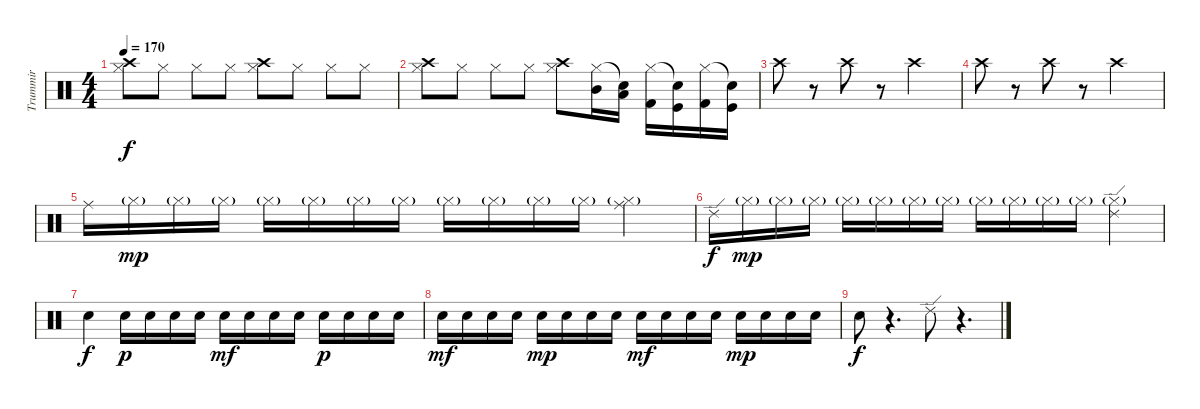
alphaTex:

\track ("Trummir" "Trummir") {instrument percussion}
\staff {score}
\articulation defaults
\ts (4 4)
\tempo 170
\clef neutral
\ks c
("Hi-Hat (closed)" "Crash high (hit)").8{dy f} "Hi-Hat (closed)".8 "Hi-Hat (closed)".8 "Hi-Hat (closed)".8 ("Hi-Hat (closed)" "Crash high (hit)").8 "Hi-Hat (closed)".8 "Hi-Hat (closed)".8 "Hi-Hat (closed)".8 |
("Hi-Hat (closed)" "Crash high (hit)").8 "Hi-Hat (closed)".8 "Hi-Hat (closed)".8 "Hi-Hat (closed)".8 ("Hi-Hat (closed)" "Crash high (hit)").8 ("Hi-Hat (closed)" "Mid Tom (hit)").16 ("Snare (hit)"{t} "Low Tom (hit)").16 ("Hi-Hat (closed)" "Kick (hit) 2").16 ("Snare (hit)"{t} "Kick (hit)").16 ("Hi-Hat (closed)" "Kick (hit) 2").16 ("Snare (hit)"{t} "Kick (hit)").16 |
"Crash high (hit)".8 r.8 "Crash high (hit)".8 r.8 "Crash high (hit)".2 |
"Crash high (hit)".8 r.8 "Crash high (hit)".8 r.8 "Crash high (hit)".2 |
"Ride (middle)".16 "Hi-Hat (closed)"{g}.16{dy mp} "Hi-Hat (closed)"{g}.16 "Hi-Hat (closed)"{g}.16 "Hi-Hat (closed)"{g}.16 "Hi-Hat (closed)"{g}.16 "Hi-Hat (closed)"{g}.16 "Hi-Hat (closed)"{g}.16 "Hi-Hat (closed)"{g}.16 "Hi-Hat (closed)"{g}.16 "Hi-Hat (closed)"{g}.16 "Hi-Hat (closed)"{g}.16 ("Hi-Hat (closed)"{g} "Ride (middle)").4 |
"Ride (edge) 2".16{dy f} "Hi-Hat (closed)"{g}.16{dy mp} "Hi-Hat (closed)"{g}.16 "Hi-Hat (closed)"{g}.16 "Hi-Hat (closed)"{g}.16 "Hi-Hat (closed)"{g}.16 "Hi-Hat (closed)"{g}.16 "Hi-Hat (closed)"{g}.16 "Hi-Hat (closed)"{g}.16 "Hi-Hat (closed)"{g}.16 "Hi-Hat (closed)"{g}.16 "Hi-Hat (closed)"{g}.16 ("Hi-Hat (closed)"{g} "Ride (edge) 2").4 |
"Snare (hit) 2".4{dy f} "Snare (hit) 2".16{dy p} "Snare (hit) 2".16 "Snare (hit) 2".16 "Snare (hit) 2".16 "Snare (hit) 2".16{dy mf} "Snare (hit) 2".16 "Snare (hit) 2".16 "Snare (hit) 2".16 "Snare (hit) 2".16{dy p} "Snare (hit) 2".16 "Snare (hit) 2".16 "Snare (hit) 2".16 |
"Snare (hit) 2".16{dy mf} "Snare (hit) 2".16 "Snare (hit) 2".16 "Snare (hit) 2".16 "Snare (hit) 2".16{dy mp} "Snare (hit) 2".16 "Snare (hit) 2".16 "Snare (hit) 2".16 "Snare (hit) 2".16{dy mf} "Snare (hit) 2".16 "Snare (hit) 2".16 "Snare (hit) 2".16 "Snare (hit) 2".16{dy mp} "Snare (hit) 2".16 "Snare (hit) 2".16 "Snare (hit) 2".16 |
"Snare (hit) 2".8{dy f} r.4{d} "Ride (edge) 2".8 r.4{d}
